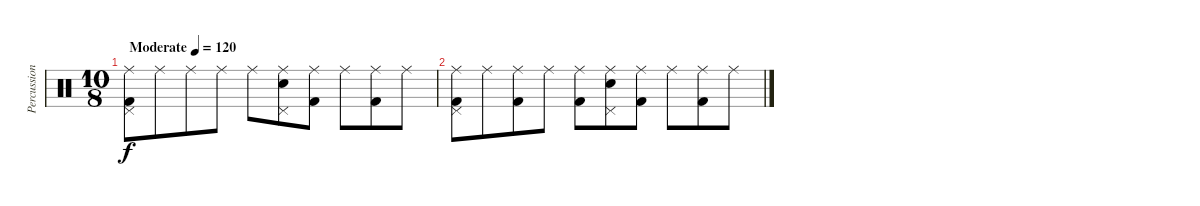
\track ("Percussion" "Percussion") {instrument percussion}
\staff {score}
\articulation defaults
\ts (10 8)
\tempo (120 "Moderate")
\clef neutral
\ks c
("Ride (middle)" "Pedal Hi-Hat (hit)" "Kick (hit) 2").8{dy f} "Ride (middle)".8 "Ride (middle)".8 "Ride (middle)".8 "Ride (middle)".8 ("Ride (middle)" "Electric Snare (hit)" "Pedal Hi-Hat (hit)").8 ("Ride (middle)" "Kick (hit) 2").8 "Ride (middle)".8 ("Ride (middle)" "Kick (hit) 2").8 "Ride (middle)".8 |
("Ride (middle)" "Pedal Hi-Hat (hit)" "Kick (hit) 2").8 "Ride (middle)".8 ("Ride (middle)" "Kick (hit) 2").8 "Ride (middle)".8 ("Ride (middle)" "Kick (hit) 2").8 ("Ride (middle)" "Electric Snare (hit)" "Pedal Hi-Hat (hit)").8 ("Ride (middle)" "Kick (hit) 2").8 "Ride (middle)".8 ("Ride (middle)" "Kick (hit) 2").8 "Ride (middle)".8
